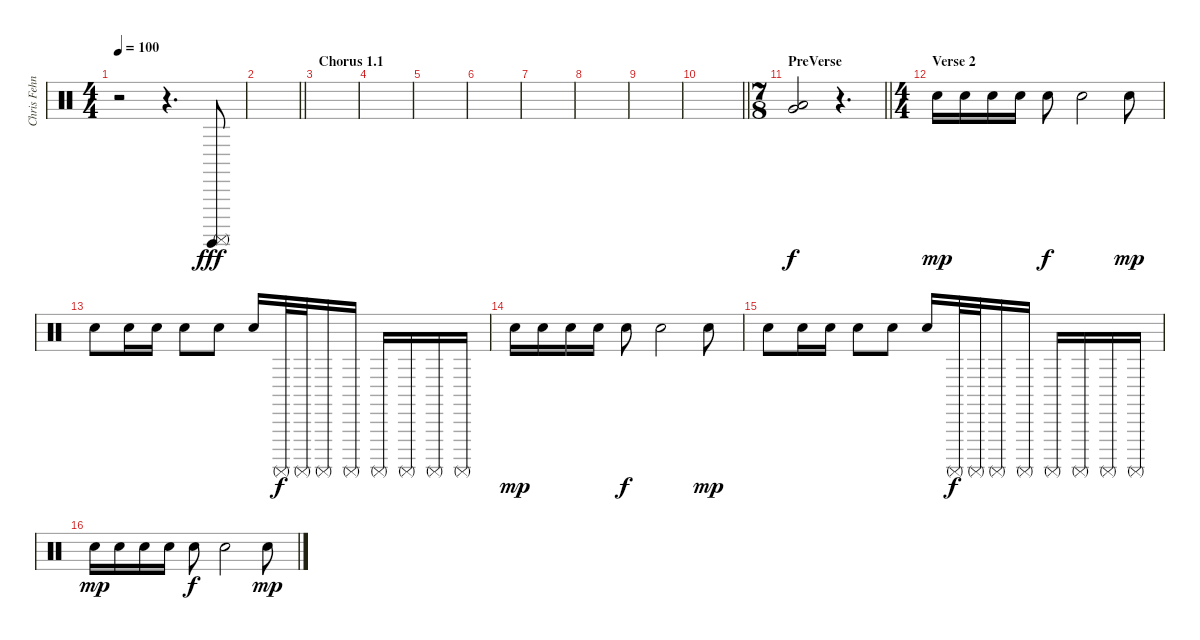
\track ("Chris Fehn" "Chris Fehn") {instrument percussion}
\staff {score}
\articulation defaults
\ts (4 4)
\tempo 100
\clef neutral
\ks c
r.2{dy fff} r.4{d} ("Surdo (hit)" "Surdo (mute)").8 |
\barLineRight lightlight
|
\section ("" "Chorus 1.1")
|
|
|
|
|
|
|
\barLineRight lightlight
|
\ts (7 8)
\section ("" "PreVerse")
\barLineRight lightlight
("Very Low Tom (hit)" "Low Floor Tom (hit)").2{dy f} r.4{d} |
\ts (4 4)
\section ("" "Verse 2")
"Snare (hit) 2".16{dy mp} "Snare (hit) 2".16 "Snare (hit) 2".16 "Snare (hit) 2".16 "Snare (hit) 2".8{dy f} "Snare (hit) 2".2 "Snare (hit) 2".8{dy mp} |
"Snare (hit) 2".8 "Snare (hit) 2".16 "Snare (hit) 2".16 "Snare (hit) 2".8 "Snare (hit) 2".8 "Snare (hit) 2".16 "Surdo (mute)".32{dy f} "Surdo (mute)".32 "Surdo (mute)".16 "Surdo (mute)".16 "Surdo (mute)".16 "Surdo (mute)".16 "Surdo (mute)".16 "Surdo (mute)".16 |
"Snare (hit) 2".16{dy mp} "Snare (hit) 2".16 "Snare (hit) 2".16 "Snare (hit) 2".16 "Snare (hit) 2".8{dy f} "Snare (hit) 2".2 "Snare (hit) 2".8{dy mp} |
"Snare (hit) 2".8 "Snare (hit) 2".16 "Snare (hit) 2".16 "Snare (hit) 2".8 "Snare (hit) 2".8 "Snare (hit) 2".16 "Surdo (mute)".32{dy f} "Surdo (mute)".32 "Surdo (mute)".16 "Surdo (mute)".16 "Surdo (mute)".16 "Surdo (mute)".16 "Surdo (mute)".16 "Surdo (mute)".16 |
"Snare (hit) 2".16{dy mp} "Snare (hit) 2".16 "Snare (hit) 2".16 "Snare (hit) 2".16 "Snare (hit) 2".8{dy f} "Snare (hit) 2".2 "Snare (hit) 2".8{dy mp}
